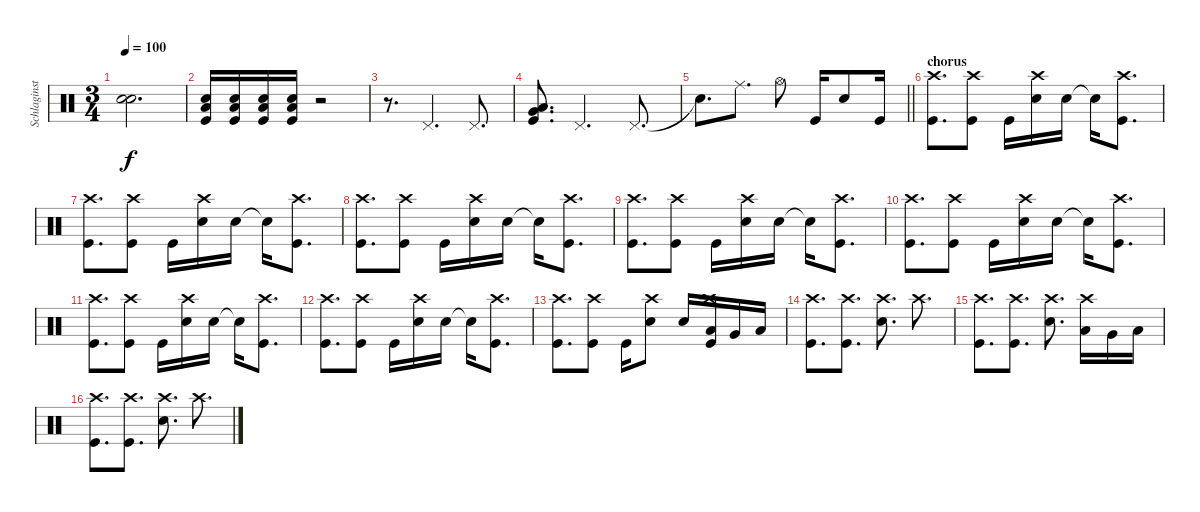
\track ("Schlaginstrumente - Auswahl" "Schlaginst") {instrument percussion}
\staff {score}
\articulation defaults
\ts (3 4)
\tempo 100
\clef neutral
\ks c
("Snare (hit)"{t} "Snare (hit)"{t}).2{d dy f} |
("Snare (hit) 2" "Low Floor Tom (hit)" "Kick (hit)").16 ("Snare (hit) 2" "Low Floor Tom (hit)" "Kick (hit)").16 ("Snare (hit) 2" "Low Floor Tom (hit)" "Kick (hit)").16 ("Snare (hit) 2" "Low Floor Tom (hit)" "Kick (hit)").16 r.2 |
r.8{d} "Pedal Hi-Hat (hit)".4{d} "Pedal Hi-Hat (hit)".8{d} |
("Very Low Tom (hit)" "Low Floor Tom (hit)" "Kick (hit)").8{d} "Pedal Hi-Hat (hit)".4{d} "Pedal Hi-Hat (hit)".8{d} |
\barLineRight lightlight "Snare (hit)"{t}.8{d} "Ride (middle)".8{d} "Hi-Hat (open)".8 "Kick (hit)".16 "Snare (hit) 2".8 "Kick (hit)".16
|
\section ("" "chorus")
("Crash high (hit)" "Kick (hit)").8{d} ("Crash high (hit)" "Kick (hit)").8 "Kick (hit)".16 ("Crash high (hit)" "Snare (hit) 2").16 "Snare (hit) 2".16 "Snare (hit) 2"{t}.16 ("Crash high (hit)" "Kick (hit)").8{d} |
("Crash high (hit)" "Kick (hit)").8{d} ("Crash high (hit)" "Kick (hit)").8 "Kick (hit)".16 ("Crash high (hit)" "Snare (hit) 2").16 "Snare (hit) 2".16 "Snare (hit) 2"{t}.16 ("Crash high (hit)" "Kick (hit)").8{d} |
("Crash high (hit)" "Kick (hit)").8{d} ("Crash high (hit)" "Kick (hit)").8 "Kick (hit)".16 ("Crash high (hit)" "Snare (hit) 2").16 "Snare (hit) 2".16 "Snare (hit) 2"{t}.16 ("Crash high (hit)" "Kick (hit)").8{d} |
("Crash high (hit)" "Kick (hit)").8{d} ("Crash high (hit)" "Kick (hit)").8 "Kick (hit)".16 ("Crash high (hit)" "Snare (hit) 2").16 "Snare (hit) 2".16 "Snare (hit) 2"{t}.16 ("Crash high (hit)" "Kick (hit)").8{d} |
("Crash high (hit)" "Kick (hit)").8{d} ("Crash high (hit)" "Kick (hit)").8 "Kick (hit)".16 ("Crash high (hit)" "Snare (hit) 2").16 "Snare (hit) 2".16 "Snare (hit) 2"{t}.16 ("Crash high (hit)" "Kick (hit)").8{d} |
("Crash high (hit)" "Kick (hit)").8{d} ("Crash high (hit)" "Kick (hit)").8 "Kick (hit)".16 ("Crash high (hit)" "Snare (hit) 2").16 "Snare (hit) 2".16 "Snare (hit) 2"{t}.16 ("Crash high (hit)" "Kick (hit)").8{d} |
("Crash high (hit)" "Kick (hit)").8{d} ("Crash high (hit)" "Kick (hit)").8 "Kick (hit)".16 ("Crash high (hit)" "Snare (hit) 2").16 "Snare (hit) 2".16 "Snare (hit) 2"{t}.16 ("Crash high (hit)" "Kick (hit)").8{d} |
("Crash high (hit)" "Kick (hit)").8{d} ("Crash high (hit)" "Kick (hit)").8 "Kick (hit)".16 ("Crash high (hit)" "Snare (hit) 2").8 "Snare (hit) 2".16 ("Crash high (hit)" "Low Tom (hit)" "Kick (hit)").16 "Very Low Tom (hit)".16 "Low Floor Tom (hit)".16 |
("Crash high (hit)" "Kick (hit)").8{d} ("Crash high (hit)" "Kick (hit)").8{d} ("Crash high (hit)" "Snare (hit) 2").8{d} "Crash high (hit)".8{d} |
("Crash high (hit)" "Kick (hit)").8{d} ("Crash high (hit)" "Kick (hit)").8{d} ("Crash high (hit)" "Snare (hit) 2").8{d} ("Crash high (hit)" "Low Floor Tom (hit)").16 "Very Low Tom (hit)".16 "Low Tom (hit)".16 |
("Crash high (hit)" "Kick (hit)").8{d} ("Crash high (hit)" "Kick (hit)").8{d} ("Crash high (hit)" "Snare (hit) 2").8{d} "Crash high (hit)".8{d}
